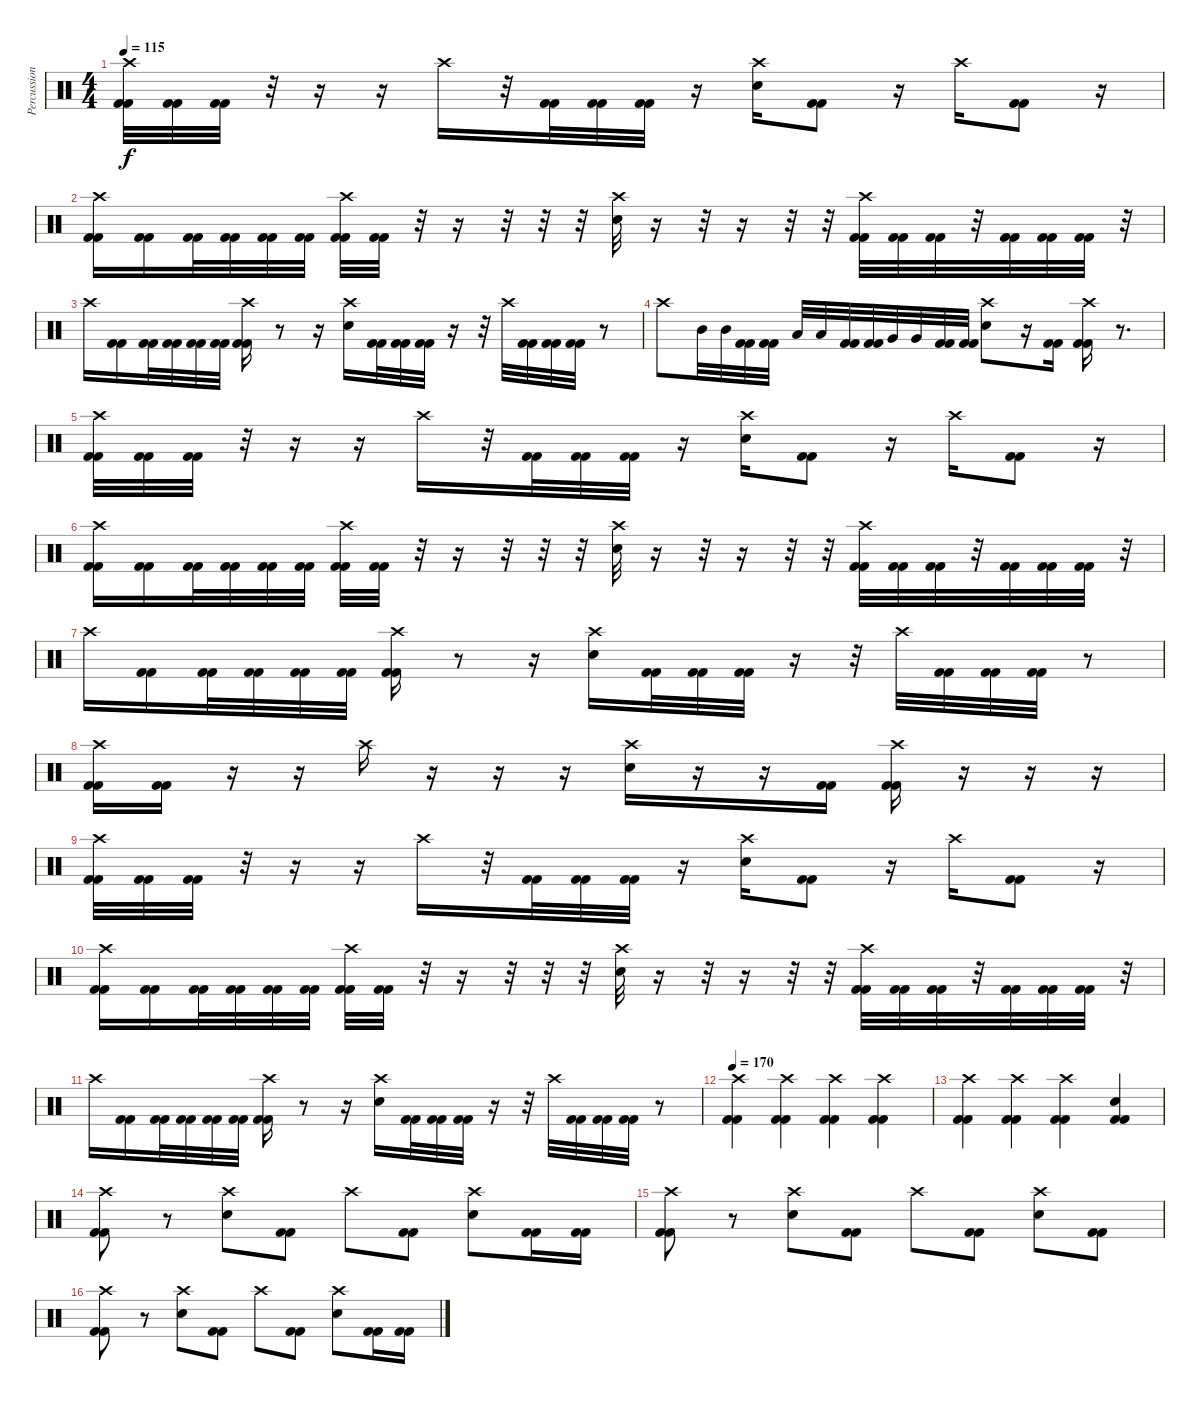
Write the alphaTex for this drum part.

\track ("Percussion" "Percussion") {instrument percussion}
\staff {score}
\articulation defaults
\ts (4 4)
\tempo 115
\clef neutral
\ks c
("Crash high (hit)" "Kick (hit) 2" "Kick (hit) 2").32{dy f} ("Kick (hit) 2" "Kick (hit) 2").32 ("Kick (hit) 2" "Kick (hit) 2").32 r.32 r.16 r.16 "Crash high (hit)".16 r.32 ("Kick (hit) 2" "Kick (hit) 2").32 ("Kick (hit) 2" "Kick (hit) 2").32 ("Kick (hit) 2" "Kick (hit) 2").32 r.16 ("Crash high (hit)" "Electric Snare (hit)").16 ("Kick (hit) 2" "Kick (hit) 2").8 r.16 "Crash high (hit)".16 ("Kick (hit) 2" "Kick (hit) 2").8 r.16 |
("Crash high (hit)" "Kick (hit) 2" "Kick (hit) 2").16 ("Kick (hit) 2" "Kick (hit) 2").16 ("Kick (hit) 2" "Kick (hit) 2").32 ("Kick (hit) 2" "Kick (hit) 2").32 ("Kick (hit) 2" "Kick (hit) 2").32 ("Kick (hit) 2" "Kick (hit) 2").32 ("Crash high (hit)" "Kick (hit) 2" "Kick (hit) 2").32 ("Kick (hit) 2" "Kick (hit) 2").32 r.32 r.16 r.32 r.32 r.32 ("Crash high (hit)" "Electric Snare (hit)").32 r.16 r.32 r.16 r.32 r.32 ("Crash high (hit)" "Kick (hit) 2" "Kick (hit) 2").32 ("Kick (hit) 2" "Kick (hit) 2").32 ("Kick (hit) 2" "Kick (hit) 2").32 r.32 ("Kick (hit) 2" "Kick (hit) 2").32 ("Kick (hit) 2" "Kick (hit) 2").32 ("Kick (hit) 2" "Kick (hit) 2").32 r.32 |
"Crash high (hit)".16 ("Kick (hit) 2" "Kick (hit) 2").16 ("Kick (hit) 2" "Kick (hit) 2").32 ("Kick (hit) 2" "Kick (hit) 2").32 ("Kick (hit) 2" "Kick (hit) 2").32 ("Kick (hit) 2" "Kick (hit) 2").32 ("Crash high (hit)" "Kick (hit) 2" "Kick (hit) 2").16 r.8 r.16 ("Crash high (hit)" "Electric Snare (hit)").16 ("Kick (hit) 2" "Kick (hit) 2").32 ("Kick (hit) 2" "Kick (hit) 2").32 ("Kick (hit) 2" "Kick (hit) 2").32 r.16 r.32 "Crash high (hit)".32 ("Kick (hit) 2" "Kick (hit) 2").32 ("Kick (hit) 2" "Kick (hit) 2").32 ("Kick (hit) 2" "Kick (hit) 2").32 r.8 |
"Crash high (hit)".8 "Mid Tom (hit)".32 "Mid Tom (hit)".32 ("Kick (hit) 2" "Kick (hit) 2").32 ("Kick (hit) 2" "Kick (hit) 2").32 "Low Tom (hit)".32 "Low Tom (hit)".32 ("Kick (hit) 2" "Kick (hit) 2").32 ("Kick (hit) 2" "Kick (hit) 2").32 "Very Low Tom (hit)".32 "Very Low Tom (hit)".32 ("Kick (hit) 2" "Kick (hit) 2").32 ("Kick (hit) 2" "Kick (hit) 2").32 ("Crash high (hit)" "Electric Snare (hit)").8 r.16 ("Kick (hit) 2" "Kick (hit) 2").16 ("Crash high (hit)" "Kick (hit) 2" "Kick (hit) 2").16 r.8{d} |
("Crash high (hit)" "Kick (hit) 2" "Kick (hit) 2").32 ("Kick (hit) 2" "Kick (hit) 2").32 ("Kick (hit) 2" "Kick (hit) 2").32 r.32 r.16 r.16 "Crash high (hit)".16 r.32 ("Kick (hit) 2" "Kick (hit) 2").32 ("Kick (hit) 2" "Kick (hit) 2").32 ("Kick (hit) 2" "Kick (hit) 2").32 r.16 ("Crash high (hit)" "Electric Snare (hit)").16 ("Kick (hit) 2" "Kick (hit) 2").8 r.16 "Crash high (hit)".16 ("Kick (hit) 2" "Kick (hit) 2").8 r.16 |
("Crash high (hit)" "Kick (hit) 2" "Kick (hit) 2").16 ("Kick (hit) 2" "Kick (hit) 2").16 ("Kick (hit) 2" "Kick (hit) 2").32 ("Kick (hit) 2" "Kick (hit) 2").32 ("Kick (hit) 2" "Kick (hit) 2").32 ("Kick (hit) 2" "Kick (hit) 2").32 ("Crash high (hit)" "Kick (hit) 2" "Kick (hit) 2").32 ("Kick (hit) 2" "Kick (hit) 2").32 r.32 r.16 r.32 r.32 r.32 ("Crash high (hit)" "Electric Snare (hit)").32 r.16 r.32 r.16 r.32 r.32 ("Crash high (hit)" "Kick (hit) 2" "Kick (hit) 2").32 ("Kick (hit) 2" "Kick (hit) 2").32 ("Kick (hit) 2" "Kick (hit) 2").32 r.32 ("Kick (hit) 2" "Kick (hit) 2").32 ("Kick (hit) 2" "Kick (hit) 2").32 ("Kick (hit) 2" "Kick (hit) 2").32 r.32 |
"Crash high (hit)".16 ("Kick (hit) 2" "Kick (hit) 2").16 ("Kick (hit) 2" "Kick (hit) 2").32 ("Kick (hit) 2" "Kick (hit) 2").32 ("Kick (hit) 2" "Kick (hit) 2").32 ("Kick (hit) 2" "Kick (hit) 2").32 ("Crash high (hit)" "Kick (hit) 2" "Kick (hit) 2").16 r.8 r.16 ("Crash high (hit)" "Electric Snare (hit)").16 ("Kick (hit) 2" "Kick (hit) 2").32 ("Kick (hit) 2" "Kick (hit) 2").32 ("Kick (hit) 2" "Kick (hit) 2").32 r.16 r.32 "Crash high (hit)".32 ("Kick (hit) 2" "Kick (hit) 2").32 ("Kick (hit) 2" "Kick (hit) 2").32 ("Kick (hit) 2" "Kick (hit) 2").32 r.8 |
("Crash high (hit)" "Kick (hit) 2" "Kick (hit) 2").16 ("Kick (hit) 2" "Kick (hit) 2").16 r.16 r.16 "Crash high (hit)".16 r.16 r.16 r.16 ("Crash high (hit)" "Electric Snare (hit)").16 r.16 r.16 ("Kick (hit) 2" "Kick (hit) 2").16 ("Crash high (hit)" "Kick (hit) 2" "Kick (hit) 2").16 r.16 r.16 r.16 |
("Crash high (hit)" "Kick (hit) 2" "Kick (hit) 2").32 ("Kick (hit) 2" "Kick (hit) 2").32 ("Kick (hit) 2" "Kick (hit) 2").32 r.32 r.16 r.16 "Crash high (hit)".16 r.32 ("Kick (hit) 2" "Kick (hit) 2").32 ("Kick (hit) 2" "Kick (hit) 2").32 ("Kick (hit) 2" "Kick (hit) 2").32 r.16 ("Crash high (hit)" "Electric Snare (hit)").16 ("Kick (hit) 2" "Kick (hit) 2").8 r.16 "Crash high (hit)".16 ("Kick (hit) 2" "Kick (hit) 2").8 r.16 |
("Crash high (hit)" "Kick (hit) 2" "Kick (hit) 2").16 ("Kick (hit) 2" "Kick (hit) 2").16 ("Kick (hit) 2" "Kick (hit) 2").32 ("Kick (hit) 2" "Kick (hit) 2").32 ("Kick (hit) 2" "Kick (hit) 2").32 ("Kick (hit) 2" "Kick (hit) 2").32 ("Crash high (hit)" "Kick (hit) 2" "Kick (hit) 2").32 ("Kick (hit) 2" "Kick (hit) 2").32 r.32 r.16 r.32 r.32 r.32 ("Crash high (hit)" "Electric Snare (hit)").32 r.16 r.32 r.16 r.32 r.32 ("Crash high (hit)" "Kick (hit) 2" "Kick (hit) 2").32 ("Kick (hit) 2" "Kick (hit) 2").32 ("Kick (hit) 2" "Kick (hit) 2").32 r.32 ("Kick (hit) 2" "Kick (hit) 2").32 ("Kick (hit) 2" "Kick (hit) 2").32 ("Kick (hit) 2" "Kick (hit) 2").32 r.32 |
"Crash high (hit)".16 ("Kick (hit) 2" "Kick (hit) 2").16 ("Kick (hit) 2" "Kick (hit) 2").32 ("Kick (hit) 2" "Kick (hit) 2").32 ("Kick (hit) 2" "Kick (hit) 2").32 ("Kick (hit) 2" "Kick (hit) 2").32 ("Crash high (hit)" "Kick (hit) 2" "Kick (hit) 2").16 r.8 r.16 ("Crash high (hit)" "Electric Snare (hit)").16 ("Kick (hit) 2" "Kick (hit) 2").32 ("Kick (hit) 2" "Kick (hit) 2").32 ("Kick (hit) 2" "Kick (hit) 2").32 r.16 r.32 "Crash high (hit)".32 ("Kick (hit) 2" "Kick (hit) 2").32 ("Kick (hit) 2" "Kick (hit) 2").32 ("Kick (hit) 2" "Kick (hit) 2").32 r.8 |
\tempo 170
("Crash high (hit)" "Kick (hit) 2" "Kick (hit) 2").4 ("Crash high (hit)" "Kick (hit) 2" "Kick (hit) 2").4 ("Crash high (hit)" "Kick (hit) 2" "Kick (hit) 2").4 ("Crash high (hit)" "Kick (hit) 2" "Kick (hit) 2").4 |
("Crash high (hit)" "Kick (hit) 2" "Kick (hit) 2").4 ("Crash high (hit)" "Kick (hit) 2" "Kick (hit) 2").4 ("Crash high (hit)" "Kick (hit) 2" "Kick (hit) 2").4 ("Electric Snare (hit)" "Kick (hit) 2" "Kick (hit) 2").4 |
("Crash high (hit)" "Kick (hit) 2" "Kick (hit) 2").8 r.8 ("Crash high (hit)" "Electric Snare (hit)").8 ("Kick (hit) 2" "Kick (hit) 2").8 "Crash high (hit)".8 ("Kick (hit) 2" "Kick (hit) 2").8 ("Crash high (hit)" "Electric Snare (hit)").8 ("Kick (hit) 2" "Kick (hit) 2").16 ("Kick (hit) 2" "Kick (hit) 2").16 |
("Crash high (hit)" "Kick (hit) 2" "Kick (hit) 2").8 r.8 ("Crash high (hit)" "Electric Snare (hit)").8 ("Kick (hit) 2" "Kick (hit) 2").8 "Crash high (hit)".8 ("Kick (hit) 2" "Kick (hit) 2").8 ("Crash high (hit)" "Electric Snare (hit)").8 ("Kick (hit) 2" "Kick (hit) 2").8 |
("Crash high (hit)" "Kick (hit) 2" "Kick (hit) 2").8 r.8 ("Crash high (hit)" "Electric Snare (hit)").8 ("Kick (hit) 2" "Kick (hit) 2").8 "Crash high (hit)".8 ("Kick (hit) 2" "Kick (hit) 2").8 ("Crash high (hit)" "Electric Snare (hit)").8 ("Kick (hit) 2" "Kick (hit) 2").16 ("Kick (hit) 2" "Kick (hit) 2").16
